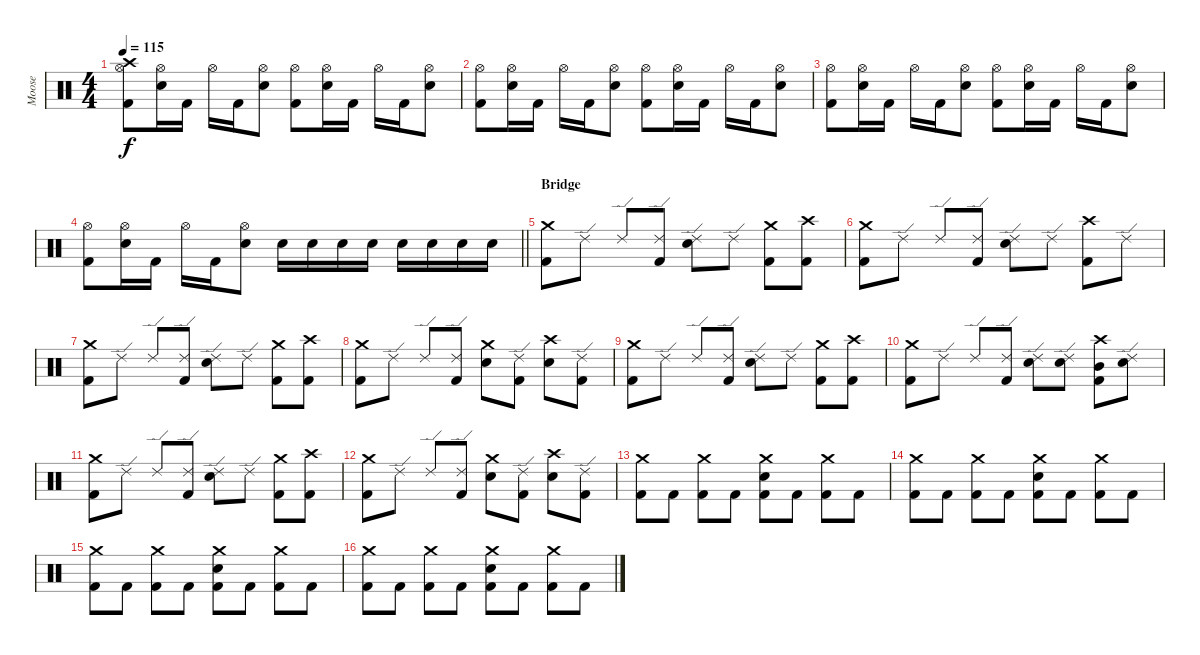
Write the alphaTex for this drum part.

\track ("Moose" "Moose") {instrument percussion}
\staff {score}
\articulation defaults
\ts (4 4)
\tempo 115
\clef neutral
\ks c
("Crash high (hit)" "Hi-Hat (open)" "Kick (hit) 2").8{dy f} ("Hi-Hat (open)" "Electric Snare (hit)").16 "Kick (hit) 2".16 "Hi-Hat (open)".16 "Kick (hit) 2".16 ("Hi-Hat (open)" "Electric Snare (hit)").8 ("Hi-Hat (open)" "Kick (hit) 2").8 ("Hi-Hat (open)" "Electric Snare (hit)").16 "Kick (hit) 2".16 "Hi-Hat (open)".16 "Kick (hit) 2".16 ("Hi-Hat (open)" "Electric Snare (hit)").8 |
("Hi-Hat (open)" "Kick (hit) 2").8 ("Hi-Hat (open)" "Electric Snare (hit)").16 "Kick (hit) 2".16 "Hi-Hat (open)".16 "Kick (hit) 2".16 ("Hi-Hat (open)" "Electric Snare (hit)").8 ("Hi-Hat (open)" "Kick (hit) 2").8 ("Hi-Hat (open)" "Electric Snare (hit)").16 "Kick (hit) 2".16 "Hi-Hat (open)".16 "Kick (hit) 2".16 ("Hi-Hat (open)" "Electric Snare (hit)").8 |
("Hi-Hat (open)" "Kick (hit) 2").8 ("Hi-Hat (open)" "Electric Snare (hit)").16 "Kick (hit) 2".16 "Hi-Hat (open)".16 "Kick (hit) 2".16 ("Hi-Hat (open)" "Electric Snare (hit)").8 ("Hi-Hat (open)" "Kick (hit) 2").8 ("Hi-Hat (open)" "Electric Snare (hit)").16 "Kick (hit) 2".16 "Hi-Hat (open)".16 "Kick (hit) 2".16 ("Hi-Hat (open)" "Electric Snare (hit)").8 |
\barLineRight lightlight
("Hi-Hat (open)" "Kick (hit) 2").8 ("Hi-Hat (open)" "Electric Snare (hit)").16 "Kick (hit) 2".16 "Hi-Hat (open)".16 "Kick (hit) 2".16 ("Hi-Hat (open)" "Electric Snare (hit)").8 "Electric Snare (hit)".16 "Electric Snare (hit)".16 "Electric Snare (hit)".16 "Electric Snare (hit)".16 "Electric Snare (hit)".16 "Electric Snare (hit)".16 "Electric Snare (hit)".16 "Electric Snare (hit)".16 |
\section ("" "Bridge")
("Crash medium (hit)" "Kick (hit) 2").8 "Ride (edge) 2".8 "Ride (edge) 2".8 ("Ride (edge) 2" "Kick (hit) 2").8 ("Ride (edge) 2" "Electric Snare (hit)").8 "Ride (edge) 2".8 ("Crash medium (hit)" "Kick (hit) 2").8 ("Crash high (hit)" "Kick (hit) 2").8 |
("Crash medium (hit)" "Kick (hit) 2").8 "Ride (edge) 2".8 "Ride (edge) 2".8 ("Ride (edge) 2" "Kick (hit) 2").8 ("Ride (edge) 2" "Electric Snare (hit)").8 "Ride (edge) 2".8 ("Crash high (hit)" "Kick (hit) 2").8 "Ride (edge) 2".8 |
("Crash medium (hit)" "Kick (hit) 2").8 "Ride (edge) 2".8 "Ride (edge) 2".8 ("Ride (edge) 2" "Kick (hit) 2").8 ("Ride (edge) 2" "Electric Snare (hit)").8 "Ride (edge) 2".8 ("Crash medium (hit)" "Kick (hit) 2").8 ("Crash high (hit)" "Kick (hit) 2").8 |
("Crash medium (hit)" "Kick (hit) 2").8 "Ride (edge) 2".8 "Ride (edge) 2".8 ("Ride (edge) 2" "Kick (hit) 2").8 ("Crash medium (hit)" "Electric Snare (hit)").8 ("Ride (edge) 2" "Kick (hit) 2").8 ("Crash high (hit)" "Electric Snare (hit)").8 ("Ride (edge) 2" "Kick (hit) 2").8 |
("Crash medium (hit)" "Kick (hit) 2").8 "Ride (edge) 2".8 "Ride (edge) 2".8 ("Ride (edge) 2" "Kick (hit) 2").8 ("Ride (edge) 2" "Electric Snare (hit)").8 "Ride (edge) 2".8 ("Crash medium (hit)" "Kick (hit) 2").8 ("Crash high (hit)" "Kick (hit) 2").8 |
("Crash medium (hit)" "Kick (hit) 2").8 "Ride (edge) 2".8 "Ride (edge) 2".8 ("Ride (edge) 2" "Kick (hit) 2").8 ("Ride (edge) 2" "Electric Snare (hit)").8 ("Ride (edge) 2" "Electric Snare (hit)").8 ("Crash high (hit)" "Mid Tom (hit)" "Kick (hit) 2").8 ("Ride (edge) 2" "Electric Snare (hit)").8 |
("Crash medium (hit)" "Kick (hit) 2").8 "Ride (edge) 2".8 "Ride (edge) 2".8 ("Ride (edge) 2" "Kick (hit) 2").8 ("Ride (edge) 2" "Electric Snare (hit)").8 "Ride (edge) 2".8 ("Crash medium (hit)" "Kick (hit) 2").8 ("Crash high (hit)" "Kick (hit) 2").8 |
("Crash medium (hit)" "Kick (hit) 2").8 "Ride (edge) 2".8 "Ride (edge) 2".8 ("Ride (edge) 2" "Kick (hit) 2").8 ("Crash medium (hit)" "Electric Snare (hit)").8 ("Ride (edge) 2" "Kick (hit) 2").8 ("Crash high (hit)" "Electric Snare (hit)").8 ("Ride (edge) 2" "Kick (hit) 2").8 |
("Crash medium (hit)" "Kick (hit) 2").8 "Kick (hit) 2".8 ("Crash medium (hit)" "Kick (hit) 2").8 "Kick (hit) 2".8 ("Crash medium (hit)" "Electric Snare (hit)" "Kick (hit) 2").8 "Kick (hit) 2".8 ("Crash medium (hit)" "Kick (hit) 2").8 "Kick (hit) 2".8 |
("Crash medium (hit)" "Kick (hit) 2").8 "Kick (hit) 2".8 ("Crash medium (hit)" "Kick (hit) 2").8 "Kick (hit) 2".8 ("Crash medium (hit)" "Electric Snare (hit)" "Kick (hit) 2").8 "Kick (hit) 2".8 ("Crash medium (hit)" "Kick (hit) 2").8 "Kick (hit) 2".8 |
("Crash medium (hit)" "Kick (hit) 2").8 "Kick (hit) 2".8 ("Crash medium (hit)" "Kick (hit) 2").8 "Kick (hit) 2".8 ("Crash medium (hit)" "Electric Snare (hit)" "Kick (hit) 2").8 "Kick (hit) 2".8 ("Crash medium (hit)" "Kick (hit) 2").8 "Kick (hit) 2".8 |
("Crash medium (hit)" "Kick (hit) 2").8 "Kick (hit) 2".8 ("Crash medium (hit)" "Kick (hit) 2").8 "Kick (hit) 2".8 ("Crash medium (hit)" "Electric Snare (hit)" "Kick (hit) 2").8 "Kick (hit) 2".8 ("Crash medium (hit)" "Kick (hit) 2").8 "Kick (hit) 2".8
